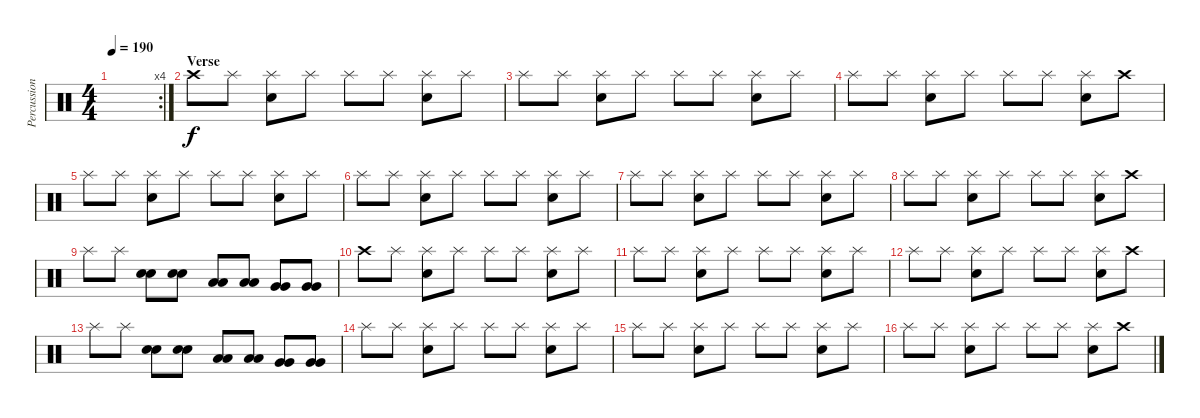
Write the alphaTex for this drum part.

\track ("Percussion" "Percussion") {instrument percussion}
\staff {score}
\articulation defaults
\rc 4
\ts (4 4)
\tempo 190
\clef neutral
\ks c
|
\section ("" "Verse")
"Crash high (hit)".8 "Splash (hit)".8 ("Splash (hit)" "Electric Snare (hit)").8 "Splash (hit)".8 "Splash (hit)".8 "Splash (hit)".8 ("Splash (hit)" "Electric Snare (hit)").8 "Splash (hit)".8 |
"Splash (hit)".8 "Splash (hit)".8 ("Splash (hit)" "Electric Snare (hit)").8 "Splash (hit)".8 "Splash (hit)".8 "Splash (hit)".8 ("Splash (hit)" "Electric Snare (hit)").8 "Splash (hit)".8 |
"Splash (hit)".8 "Splash (hit)".8 ("Splash (hit)" "Electric Snare (hit)").8 "Splash (hit)".8 "Splash (hit)".8 "Splash (hit)".8 ("Splash (hit)" "Electric Snare (hit)").8 "Crash high (hit)".8 |
"Splash (hit)".8 "Splash (hit)".8 ("Splash (hit)" "Electric Snare (hit)").8 "Splash (hit)".8 "Splash (hit)".8 "Splash (hit)".8 ("Splash (hit)" "Electric Snare (hit)").8 "Splash (hit)".8 |
"Splash (hit)".8 "Splash (hit)".8 ("Splash (hit)" "Electric Snare (hit)").8 "Splash (hit)".8 "Splash (hit)".8 "Splash (hit)".8 ("Splash (hit)" "Electric Snare (hit)").8 "Splash (hit)".8 |
"Splash (hit)".8 "Splash (hit)".8 ("Splash (hit)" "Electric Snare (hit)").8 "Splash (hit)".8 "Splash (hit)".8 "Splash (hit)".8 ("Splash (hit)" "Electric Snare (hit)").8 "Splash (hit)".8 |
"Splash (hit)".8 "Splash (hit)".8 ("Splash (hit)" "Electric Snare (hit)").8 "Splash (hit)".8 "Splash (hit)".8 "Splash (hit)".8 ("Splash (hit)" "Electric Snare (hit)").8 "Crash high (hit)".8 |
"Splash (hit)".8 "Splash (hit)".8 ("Snare (hit) 2" "Snare (hit) 2").8 ("Snare (hit) 2" "Snare (hit) 2").8 ("Low Floor Tom (hit)" "Low Floor Tom (hit)").8 ("Low Floor Tom (hit)" "Low Floor Tom (hit)").8 ("Very Low Tom (hit)" "Very Low Tom (hit)").8 ("Very Low Tom (hit)" "Very Low Tom (hit)").8 |
"Crash high (hit)".8 "Splash (hit)".8 ("Splash (hit)" "Electric Snare (hit)").8 "Splash (hit)".8 "Splash (hit)".8 "Splash (hit)".8 ("Splash (hit)" "Electric Snare (hit)").8 "Splash (hit)".8 |
"Splash (hit)".8 "Splash (hit)".8 ("Splash (hit)" "Electric Snare (hit)").8 "Splash (hit)".8 "Splash (hit)".8 "Splash (hit)".8 ("Splash (hit)" "Electric Snare (hit)").8 "Splash (hit)".8 |
"Splash (hit)".8 "Splash (hit)".8 ("Splash (hit)" "Electric Snare (hit)").8 "Splash (hit)".8 "Splash (hit)".8 "Splash (hit)".8 ("Splash (hit)" "Electric Snare (hit)").8 "Crash high (hit)".8 |
"Splash (hit)".8 "Splash (hit)".8 ("Snare (hit) 2" "Snare (hit) 2").8 ("Snare (hit) 2" "Snare (hit) 2").8 ("Low Floor Tom (hit)" "Low Floor Tom (hit)").8 ("Low Floor Tom (hit)" "Low Floor Tom (hit)").8 ("Very Low Tom (hit)" "Very Low Tom (hit)").8 ("Very Low Tom (hit)" "Very Low Tom (hit)").8 |
"Splash (hit)".8 "Splash (hit)".8 ("Splash (hit)" "Electric Snare (hit)").8 "Splash (hit)".8 "Splash (hit)".8 "Splash (hit)".8 ("Splash (hit)" "Electric Snare (hit)").8 "Splash (hit)".8 |
"Splash (hit)".8 "Splash (hit)".8 ("Splash (hit)" "Electric Snare (hit)").8 "Splash (hit)".8 "Splash (hit)".8 "Splash (hit)".8 ("Splash (hit)" "Electric Snare (hit)").8 "Splash (hit)".8 |
"Splash (hit)".8 "Splash (hit)".8 ("Splash (hit)" "Electric Snare (hit)").8 "Splash (hit)".8 "Splash (hit)".8 "Splash (hit)".8 ("Splash (hit)" "Electric Snare (hit)").8 "Crash high (hit)".8
